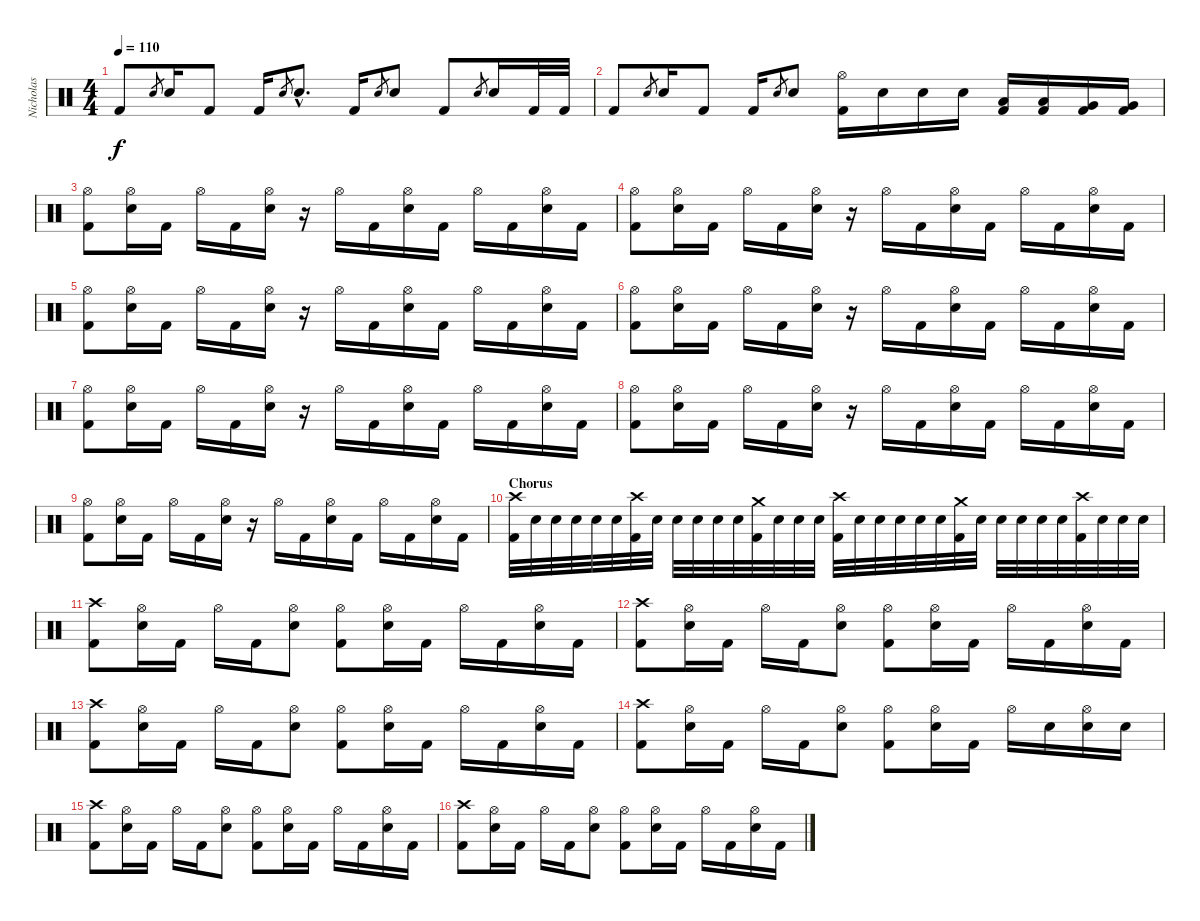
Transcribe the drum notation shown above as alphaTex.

\track ("Nicholas" "Nicholas") {instrument percussion}
\staff {score}
\articulation defaults
\ts (4 4)
\tempo 110
\clef neutral
\ks c "Kick (hit) 2".8{dy f} "Snare (hit) 2".8{gr} "Snare (hit) 2".16 "Kick (hit) 2".8 "Kick (hit) 2".16 "Snare (hit) 2".8{gr} "Snare (hit) 2"{hac}.8{d} "Kick (hit) 2".16 "Snare (hit) 2".8{gr} "Snare (hit) 2".8 "Kick (hit) 2".8 "Snare (hit) 2".8{gr} "Snare (hit) 2".16 "Kick (hit) 2".32 "Kick (hit) 2".32
|
"Kick (hit) 2".8 "Snare (hit) 2".8{gr} "Snare (hit) 2".16 "Kick (hit) 2".8 "Kick (hit) 2".16 "Snare (hit) 2".8{gr} "Snare (hit) 2".8 ("Hi-Hat (open)" "Kick (hit) 2").16 "Snare (hit) 2".16 "Snare (hit) 2".16 "Snare (hit) 2".16 ("Kick (hit) 2" "Low Tom (hit)").16 ("Kick (hit) 2" "Low Tom (hit)").16 ("Kick (hit) 2" "Very Low Tom (hit)").16 ("Kick (hit) 2" "Very Low Tom (hit)").16 |
("Hi-Hat (open)" "Kick (hit) 2").8 ("Hi-Hat (open)" "Snare (hit) 2").16 "Kick (hit) 2".16 "Hi-Hat (open)".16 "Kick (hit) 2".16 ("Hi-Hat (open)" "Snare (hit) 2").16 r.16 "Hi-Hat (open)".16 "Kick (hit) 2".16 ("Hi-Hat (open)" "Snare (hit) 2").16 "Kick (hit) 2".16 "Hi-Hat (open)".16 "Kick (hit) 2".16 ("Hi-Hat (open)" "Snare (hit) 2").16 "Kick (hit) 2".16 |
("Hi-Hat (open)" "Kick (hit) 2").8 ("Hi-Hat (open)" "Snare (hit) 2").16 "Kick (hit) 2".16 "Hi-Hat (open)".16 "Kick (hit) 2".16 ("Hi-Hat (open)" "Snare (hit) 2").16 r.16 "Hi-Hat (open)".16 "Kick (hit) 2".16 ("Hi-Hat (open)" "Snare (hit) 2").16 "Kick (hit) 2".16 "Hi-Hat (open)".16 "Kick (hit) 2".16 ("Hi-Hat (open)" "Snare (hit) 2").16 "Kick (hit) 2".16 |
("Hi-Hat (open)" "Kick (hit) 2").8 ("Hi-Hat (open)" "Snare (hit) 2").16 "Kick (hit) 2".16 "Hi-Hat (open)".16 "Kick (hit) 2".16 ("Hi-Hat (open)" "Snare (hit) 2").16 r.16 "Hi-Hat (open)".16 "Kick (hit) 2".16 ("Hi-Hat (open)" "Snare (hit) 2").16 "Kick (hit) 2".16 "Hi-Hat (open)".16 "Kick (hit) 2".16 ("Hi-Hat (open)" "Snare (hit) 2").16 "Kick (hit) 2".16 |
("Hi-Hat (open)" "Kick (hit) 2").8 ("Hi-Hat (open)" "Snare (hit) 2").16 "Kick (hit) 2".16 "Hi-Hat (open)".16 "Kick (hit) 2".16 ("Hi-Hat (open)" "Snare (hit) 2").16 r.16 "Hi-Hat (open)".16 "Kick (hit) 2".16 ("Hi-Hat (open)" "Snare (hit) 2").16 "Kick (hit) 2".16 "Hi-Hat (open)".16 "Kick (hit) 2".16 ("Hi-Hat (open)" "Snare (hit) 2").16 "Kick (hit) 2".16 |
("Hi-Hat (open)" "Kick (hit) 2").8 ("Hi-Hat (open)" "Snare (hit) 2").16 "Kick (hit) 2".16 "Hi-Hat (open)".16 "Kick (hit) 2".16 ("Hi-Hat (open)" "Snare (hit) 2").16 r.16 "Hi-Hat (open)".16 "Kick (hit) 2".16 ("Hi-Hat (open)" "Snare (hit) 2").16 "Kick (hit) 2".16 "Hi-Hat (open)".16 "Kick (hit) 2".16 ("Hi-Hat (open)" "Snare (hit) 2").16 "Kick (hit) 2".16 |
("Hi-Hat (open)" "Kick (hit) 2").8 ("Hi-Hat (open)" "Snare (hit) 2").16 "Kick (hit) 2".16 "Hi-Hat (open)".16 "Kick (hit) 2".16 ("Hi-Hat (open)" "Snare (hit) 2").16 r.16 "Hi-Hat (open)".16 "Kick (hit) 2".16 ("Hi-Hat (open)" "Snare (hit) 2").16 "Kick (hit) 2".16 "Hi-Hat (open)".16 "Kick (hit) 2".16 ("Hi-Hat (open)" "Snare (hit) 2").16 "Kick (hit) 2".16 |
("Hi-Hat (open)" "Kick (hit) 2").8 ("Hi-Hat (open)" "Snare (hit) 2").16 "Kick (hit) 2".16 "Hi-Hat (open)".16 "Kick (hit) 2".16 ("Hi-Hat (open)" "Snare (hit) 2").16 r.16 "Hi-Hat (open)".16 "Kick (hit) 2".16 ("Hi-Hat (open)" "Snare (hit) 2").16 "Kick (hit) 2".16 "Hi-Hat (open)".16 "Kick (hit) 2".16 ("Hi-Hat (open)" "Snare (hit) 2").16 "Kick (hit) 2".16 |
\section ("" "Chorus")
("Crash high (hit)" "Kick (hit) 2").32 "Snare (hit) 2".32 "Snare (hit) 2".32 "Snare (hit) 2".32 "Snare (hit) 2".32 "Snare (hit) 2".32 ("Crash high (hit)" "Kick (hit) 2").32 "Snare (hit) 2".32 "Snare (hit) 2".32 "Snare (hit) 2".32 "Snare (hit) 2".32 "Snare (hit) 2".32 ("Crash medium (hit)" "Kick (hit) 2").32 "Snare (hit) 2".32 "Snare (hit) 2".32 "Snare (hit) 2".32 ("Crash high (hit)" "Kick (hit) 2").32 "Snare (hit) 2".32 "Snare (hit) 2".32 "Snare (hit) 2".32 "Snare (hit) 2".32 "Snare (hit) 2".32 ("Crash medium (hit)" "Kick (hit) 2").32 "Snare (hit) 2".32 "Snare (hit) 2".32 "Snare (hit) 2".32 "Snare (hit) 2".32 "Snare (hit) 2".32 ("Crash high (hit)" "Kick (hit) 2").32 "Snare (hit) 2".32 "Snare (hit) 2".32 "Snare (hit) 2".32 |
("Crash high (hit)" "Kick (hit) 2").8 ("Hi-Hat (open)" "Snare (hit) 2").16 "Kick (hit) 2".16 "Hi-Hat (open)".16 "Kick (hit) 2".16 ("Hi-Hat (open)" "Snare (hit) 2").8 ("Hi-Hat (open)" "Kick (hit) 2").8 ("Hi-Hat (open)" "Snare (hit) 2").16 "Kick (hit) 2".16 "Hi-Hat (open)".16 "Kick (hit) 2".16 ("Hi-Hat (open)" "Snare (hit) 2").16 "Kick (hit) 2".16 |
("Crash high (hit)" "Kick (hit) 2").8 ("Hi-Hat (open)" "Snare (hit) 2").16 "Kick (hit) 2".16 "Hi-Hat (open)".16 "Kick (hit) 2".16 ("Hi-Hat (open)" "Snare (hit) 2").8 ("Hi-Hat (open)" "Kick (hit) 2").8 ("Hi-Hat (open)" "Snare (hit) 2").16 "Kick (hit) 2".16 "Hi-Hat (open)".16 "Kick (hit) 2".16 ("Hi-Hat (open)" "Snare (hit) 2").16 "Kick (hit) 2".16 |
("Crash high (hit)" "Kick (hit) 2").8 ("Hi-Hat (open)" "Snare (hit) 2").16 "Kick (hit) 2".16 "Hi-Hat (open)".16 "Kick (hit) 2".16 ("Hi-Hat (open)" "Snare (hit) 2").8 ("Hi-Hat (open)" "Kick (hit) 2").8 ("Hi-Hat (open)" "Snare (hit) 2").16 "Kick (hit) 2".16 "Hi-Hat (open)".16 "Kick (hit) 2".16 ("Hi-Hat (open)" "Snare (hit) 2").16 "Kick (hit) 2".16 |
("Crash high (hit)" "Kick (hit) 2").8 ("Hi-Hat (open)" "Snare (hit) 2").16 "Kick (hit) 2".16 "Hi-Hat (open)".16 "Kick (hit) 2".16 ("Hi-Hat (open)" "Snare (hit) 2").8 ("Hi-Hat (open)" "Kick (hit) 2").8 ("Hi-Hat (open)" "Snare (hit) 2").16 "Kick (hit) 2".16 "Hi-Hat (open)".16 "Snare (hit) 2".16 ("Hi-Hat (open)" "Snare (hit) 2").16 "Snare (hit) 2".16 |
("Crash high (hit)" "Kick (hit) 2").8 ("Hi-Hat (open)" "Snare (hit) 2").16 "Kick (hit) 2".16 "Hi-Hat (open)".16 "Kick (hit) 2".16 ("Hi-Hat (open)" "Snare (hit) 2").8 ("Hi-Hat (open)" "Kick (hit) 2").8 ("Hi-Hat (open)" "Snare (hit) 2").16 "Kick (hit) 2".16 "Hi-Hat (open)".16 "Kick (hit) 2".16 ("Hi-Hat (open)" "Snare (hit) 2").16 "Kick (hit) 2".16 |
("Crash high (hit)" "Kick (hit) 2").8 ("Hi-Hat (open)" "Snare (hit) 2").16 "Kick (hit) 2".16 "Hi-Hat (open)".16 "Kick (hit) 2".16 ("Hi-Hat (open)" "Snare (hit) 2").8 ("Hi-Hat (open)" "Kick (hit) 2").8 ("Hi-Hat (open)" "Snare (hit) 2").16 "Kick (hit) 2".16 "Hi-Hat (open)".16 "Kick (hit) 2".16 ("Hi-Hat (open)" "Snare (hit) 2").16 "Kick (hit) 2".16
